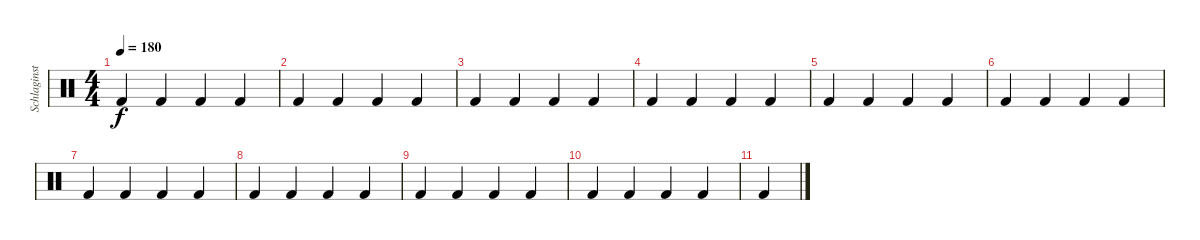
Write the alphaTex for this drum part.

\track ("Schlaginstrumente - Auswahl" "Schlaginst") {instrument percussion}
\staff {score}
\articulation defaults
\ts (4 4)
\tempo 180
\clef neutral
\ks c "Kick (hit) 2".4{dy f} "Kick (hit) 2".4 "Kick (hit) 2".4 "Kick (hit) 2".4
|
"Kick (hit) 2".4 "Kick (hit) 2".4 "Kick (hit) 2".4 "Kick (hit) 2".4 |
"Kick (hit) 2".4 "Kick (hit) 2".4 "Kick (hit) 2".4 "Kick (hit) 2".4 |
"Kick (hit) 2".4 "Kick (hit) 2".4 "Kick (hit) 2".4 "Kick (hit) 2".4 |
"Kick (hit) 2".4 "Kick (hit) 2".4 "Kick (hit) 2".4 "Kick (hit) 2".4 |
"Kick (hit) 2".4 "Kick (hit) 2".4 "Kick (hit) 2".4 "Kick (hit) 2".4 |
"Kick (hit) 2".4 "Kick (hit) 2".4 "Kick (hit) 2".4 "Kick (hit) 2".4 |
"Kick (hit) 2".4 "Kick (hit) 2".4 "Kick (hit) 2".4 "Kick (hit) 2".4 |
"Kick (hit) 2".4 "Kick (hit) 2".4 "Kick (hit) 2".4 "Kick (hit) 2".4 |
"Kick (hit) 2".4 "Kick (hit) 2".4 "Kick (hit) 2".4 "Kick (hit) 2".4 |
"Kick (hit) 2".4
